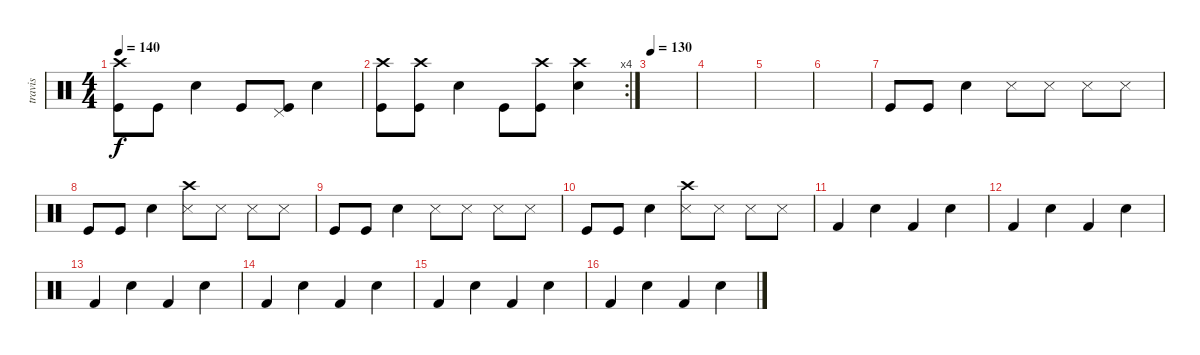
\track ("travis" "travis") {instrument percussion}
\staff {score}
\articulation defaults
\ts (4 4)
\tempo 140
\clef neutral
\ks c
("Crash high (hit)" "Kick (hit)").8{dy f} "Kick (hit)".8 "Electric Snare (hit)".4 "Kick (hit)".8 ("Pedal Hi-Hat (hit)" "Kick (hit)").8 "Electric Snare (hit)".4 |
\rc 4
("Crash high (hit)" "Kick (hit)").8 ("Crash high (hit)" "Kick (hit)").8 "Electric Snare (hit)".4 "Kick (hit)".8 ("Crash high (hit)" "Kick (hit)").8 ("Crash high (hit)" "Electric Snare (hit)").4 |
\tempo 130
|
|
|
|
"Kick (hit)".8 "Kick (hit)".8 "Electric Snare (hit)".4 "Snare (side stick) 3".8 "Snare (side stick) 3".8 "Snare (side stick) 3".8 "Snare (side stick) 3".8 |
"Kick (hit)".8 "Kick (hit)".8 "Electric Snare (hit)".4 ("Crash high (hit)" "Snare (side stick) 3").8 "Snare (side stick) 3".8 "Snare (side stick) 3".8 "Snare (side stick) 3".8 |
"Kick (hit)".8 "Kick (hit)".8 "Electric Snare (hit)".4 "Snare (side stick) 3".8 "Snare (side stick) 3".8 "Snare (side stick) 3".8 "Snare (side stick) 3".8 |
"Kick (hit)".8 "Kick (hit)".8 "Electric Snare (hit)".4 ("Crash high (hit)" "Snare (side stick) 3").8 "Snare (side stick) 3".8 "Snare (side stick) 3".8 "Snare (side stick) 3".8 |
"Kick (hit) 2".4 "Electric Snare (hit)".4 "Kick (hit) 2".4 "Electric Snare (hit)".4 |
"Kick (hit) 2".4 "Electric Snare (hit)".4 "Kick (hit) 2".4 "Electric Snare (hit)".4 |
"Kick (hit) 2".4 "Electric Snare (hit)".4 "Kick (hit) 2".4 "Electric Snare (hit)".4 |
"Kick (hit) 2".4 "Electric Snare (hit)".4 "Kick (hit) 2".4 "Electric Snare (hit)".4 |
"Kick (hit) 2".4 "Electric Snare (hit)".4 "Kick (hit) 2".4 "Electric Snare (hit)".4 |
"Kick (hit) 2".4 "Electric Snare (hit)".4 "Kick (hit) 2".4 "Electric Snare (hit)".4
